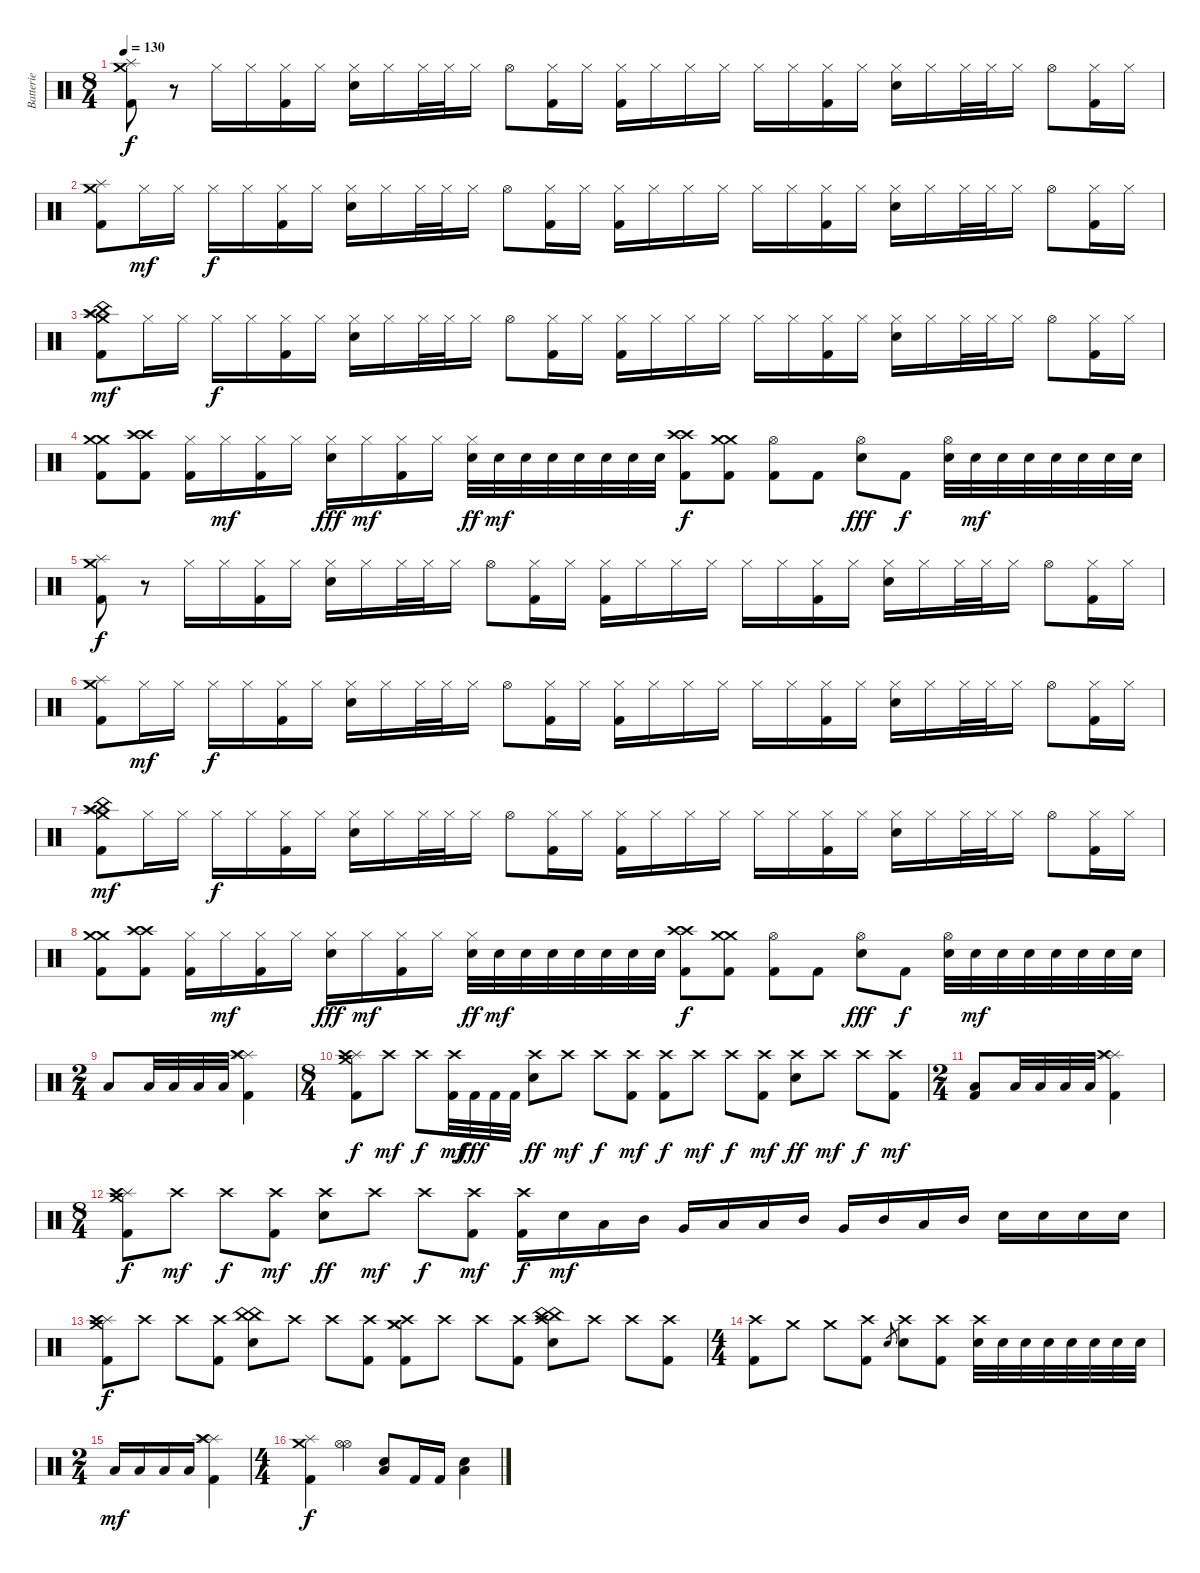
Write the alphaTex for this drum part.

\track ("Batterie" "Batterie") {instrument percussion}
\staff {score}
\articulation defaults
\ts (8 4)
\tempo 130
\clef neutral
\ks c
("Splash (hit)" "Crash medium (hit)" "Kick (hit) 2").8{dy f} r.8 "Hi-Hat (closed)".16 "Hi-Hat (closed)".16 ("Hi-Hat (closed)" "Kick (hit) 2").16 "Hi-Hat (closed)".16 ("Hi-Hat (closed)" "Electric Snare (hit)").16 "Hi-Hat (closed)".16 "Hi-Hat (closed)".32 "Hi-Hat (closed)".32 "Hi-Hat (closed)".16 "Hi-Hat (open)".8 ("Hi-Hat (closed)" "Kick (hit) 2").16 "Hi-Hat (closed)".16 ("Hi-Hat (closed)" "Kick (hit) 2").16 "Hi-Hat (closed)".16 "Hi-Hat (closed)".16 "Hi-Hat (closed)".16 "Hi-Hat (closed)".16 "Hi-Hat (closed)".16 ("Hi-Hat (closed)" "Kick (hit) 2").16 "Hi-Hat (closed)".16 ("Hi-Hat (closed)" "Electric Snare (hit)").16 "Hi-Hat (closed)".16 "Hi-Hat (closed)".32 "Hi-Hat (closed)".32 "Hi-Hat (closed)".16 "Hi-Hat (open)".8 ("Hi-Hat (closed)" "Kick (hit) 2").16 "Hi-Hat (closed)".16 |
("Splash (hit)" "Crash medium (hit)" "Kick (hit) 2").8 "Hi-Hat (closed)".16{dy mf} "Hi-Hat (closed)".16 "Hi-Hat (closed)".16{dy f} "Hi-Hat (closed)".16 ("Hi-Hat (closed)" "Kick (hit) 2").16 "Hi-Hat (closed)".16 ("Hi-Hat (closed)" "Electric Snare (hit)").16 "Hi-Hat (closed)".16 "Hi-Hat (closed)".32 "Hi-Hat (closed)".32 "Hi-Hat (closed)".16 "Hi-Hat (open)".8 ("Hi-Hat (closed)" "Kick (hit) 2").16 "Hi-Hat (closed)".16 ("Hi-Hat (closed)" "Kick (hit) 2").16 "Hi-Hat (closed)".16 "Hi-Hat (closed)".16 "Hi-Hat (closed)".16 "Hi-Hat (closed)".16 "Hi-Hat (closed)".16 ("Hi-Hat (closed)" "Kick (hit) 2").16 "Hi-Hat (closed)".16 ("Hi-Hat (closed)" "Electric Snare (hit)").16 "Hi-Hat (closed)".16 "Hi-Hat (closed)".32 "Hi-Hat (closed)".32 "Hi-Hat (closed)".16 "Hi-Hat (open)".8 ("Hi-Hat (closed)" "Kick (hit) 2").16 "Hi-Hat (closed)".16 |
("Splash (hit)" "Crash medium (hit)" "China (hit)" "Crash high (hit)" "Kick (hit) 2").8{dy mf} "Hi-Hat (closed)".16 "Hi-Hat (closed)".16 "Hi-Hat (closed)".16{dy f} "Hi-Hat (closed)".16 ("Hi-Hat (closed)" "Kick (hit) 2").16 "Hi-Hat (closed)".16 ("Hi-Hat (closed)" "Electric Snare (hit)").16 "Hi-Hat (closed)".16 "Hi-Hat (closed)".32 "Hi-Hat (closed)".32 "Hi-Hat (closed)".16 "Hi-Hat (open)".8 ("Hi-Hat (closed)" "Kick (hit) 2").16 "Hi-Hat (closed)".16 ("Hi-Hat (closed)" "Kick (hit) 2").16 "Hi-Hat (closed)".16 "Hi-Hat (closed)".16 "Hi-Hat (closed)".16 "Hi-Hat (closed)".16 "Hi-Hat (closed)".16 ("Hi-Hat (closed)" "Kick (hit) 2").16 "Hi-Hat (closed)".16 ("Hi-Hat (closed)" "Electric Snare (hit)").16 "Hi-Hat (closed)".16 "Hi-Hat (closed)".32 "Hi-Hat (closed)".32 "Hi-Hat (closed)".16 "Hi-Hat (open)".8 ("Hi-Hat (closed)" "Kick (hit) 2").16 "Hi-Hat (closed)".16 |
("Crash medium (hit)" "Crash medium (hit)" "Kick (hit) 2").8 ("Crash high (hit)" "Crash high (hit)" "Kick (hit) 2").8 ("Hi-Hat (closed)" "Kick (hit) 2").16 "Hi-Hat (closed)".16{dy mf} ("Hi-Hat (closed)" "Kick (hit) 2").16 "Hi-Hat (closed)".16 ("Hi-Hat (closed)" "Electric Snare (hit)").16{dy fff} "Hi-Hat (closed)".16{dy mf} ("Hi-Hat (closed)" "Kick (hit) 2").16 "Hi-Hat (closed)".16 ("Hi-Hat (closed)" "Electric Snare (hit)").32{dy ff} "Electric Snare (hit)".32{dy mf} "Electric Snare (hit)".32 "Electric Snare (hit)".32 "Electric Snare (hit)".32 "Electric Snare (hit)".32 "Electric Snare (hit)".32 "Electric Snare (hit)".32 ("Crash high (hit)" "Crash high (hit)" "Kick (hit) 2").8{dy f} ("Crash medium (hit)" "Crash medium (hit)" "Kick (hit) 2").8 ("Hi-Hat (open)" "Kick (hit) 2").8 "Kick (hit) 2".8 ("Hi-Hat (open)" "Electric Snare (hit)").8{dy fff} "Kick (hit) 2".8{dy f} ("Hi-Hat (open)" "Electric Snare (hit)").32 "Electric Snare (hit)".32{dy mf} "Electric Snare (hit)".32 "Electric Snare (hit)".32 "Electric Snare (hit)".32 "Electric Snare (hit)".32 "Electric Snare (hit)".32 "Electric Snare (hit)".32 |
("Splash (hit)" "Crash medium (hit)" "Kick (hit) 2").8{dy f} r.8 "Hi-Hat (closed)".16 "Hi-Hat (closed)".16 ("Hi-Hat (closed)" "Kick (hit) 2").16 "Hi-Hat (closed)".16 ("Hi-Hat (closed)" "Electric Snare (hit)").16 "Hi-Hat (closed)".16 "Hi-Hat (closed)".32 "Hi-Hat (closed)".32 "Hi-Hat (closed)".16 "Hi-Hat (open)".8 ("Hi-Hat (closed)" "Kick (hit) 2").16 "Hi-Hat (closed)".16 ("Hi-Hat (closed)" "Kick (hit) 2").16 "Hi-Hat (closed)".16 "Hi-Hat (closed)".16 "Hi-Hat (closed)".16 "Hi-Hat (closed)".16 "Hi-Hat (closed)".16 ("Hi-Hat (closed)" "Kick (hit) 2").16 "Hi-Hat (closed)".16 ("Hi-Hat (closed)" "Electric Snare (hit)").16 "Hi-Hat (closed)".16 "Hi-Hat (closed)".32 "Hi-Hat (closed)".32 "Hi-Hat (closed)".16 "Hi-Hat (open)".8 ("Hi-Hat (closed)" "Kick (hit) 2").16 "Hi-Hat (closed)".16 |
("Splash (hit)" "Crash medium (hit)" "Kick (hit) 2").8 "Hi-Hat (closed)".16{dy mf} "Hi-Hat (closed)".16 "Hi-Hat (closed)".16{dy f} "Hi-Hat (closed)".16 ("Hi-Hat (closed)" "Kick (hit) 2").16 "Hi-Hat (closed)".16 ("Hi-Hat (closed)" "Electric Snare (hit)").16 "Hi-Hat (closed)".16 "Hi-Hat (closed)".32 "Hi-Hat (closed)".32 "Hi-Hat (closed)".16 "Hi-Hat (open)".8 ("Hi-Hat (closed)" "Kick (hit) 2").16 "Hi-Hat (closed)".16 ("Hi-Hat (closed)" "Kick (hit) 2").16 "Hi-Hat (closed)".16 "Hi-Hat (closed)".16 "Hi-Hat (closed)".16 "Hi-Hat (closed)".16 "Hi-Hat (closed)".16 ("Hi-Hat (closed)" "Kick (hit) 2").16 "Hi-Hat (closed)".16 ("Hi-Hat (closed)" "Electric Snare (hit)").16 "Hi-Hat (closed)".16 "Hi-Hat (closed)".32 "Hi-Hat (closed)".32 "Hi-Hat (closed)".16 "Hi-Hat (open)".8 ("Hi-Hat (closed)" "Kick (hit) 2").16 "Hi-Hat (closed)".16 |
("Splash (hit)" "Crash medium (hit)" "China (hit)" "Crash high (hit)" "Kick (hit) 2").8{dy mf} "Hi-Hat (closed)".16 "Hi-Hat (closed)".16 "Hi-Hat (closed)".16{dy f} "Hi-Hat (closed)".16 ("Hi-Hat (closed)" "Kick (hit) 2").16 "Hi-Hat (closed)".16 ("Hi-Hat (closed)" "Electric Snare (hit)").16 "Hi-Hat (closed)".16 "Hi-Hat (closed)".32 "Hi-Hat (closed)".32 "Hi-Hat (closed)".16 "Hi-Hat (open)".8 ("Hi-Hat (closed)" "Kick (hit) 2").16 "Hi-Hat (closed)".16 ("Hi-Hat (closed)" "Kick (hit) 2").16 "Hi-Hat (closed)".16 "Hi-Hat (closed)".16 "Hi-Hat (closed)".16 "Hi-Hat (closed)".16 "Hi-Hat (closed)".16 ("Hi-Hat (closed)" "Kick (hit) 2").16 "Hi-Hat (closed)".16 ("Hi-Hat (closed)" "Electric Snare (hit)").16 "Hi-Hat (closed)".16 "Hi-Hat (closed)".32 "Hi-Hat (closed)".32 "Hi-Hat (closed)".16 "Hi-Hat (open)".8 ("Hi-Hat (closed)" "Kick (hit) 2").16 "Hi-Hat (closed)".16 |
("Crash medium (hit)" "Crash medium (hit)" "Kick (hit) 2").8 ("Crash high (hit)" "Crash high (hit)" "Kick (hit) 2").8 ("Hi-Hat (closed)" "Kick (hit) 2").16 "Hi-Hat (closed)".16{dy mf} ("Hi-Hat (closed)" "Kick (hit) 2").16 "Hi-Hat (closed)".16 ("Hi-Hat (closed)" "Electric Snare (hit)").16{dy fff} "Hi-Hat (closed)".16{dy mf} ("Hi-Hat (closed)" "Kick (hit) 2").16 "Hi-Hat (closed)".16 ("Hi-Hat (closed)" "Electric Snare (hit)").32{dy ff} "Electric Snare (hit)".32{dy mf} "Electric Snare (hit)".32 "Electric Snare (hit)".32 "Electric Snare (hit)".32 "Electric Snare (hit)".32 "Electric Snare (hit)".32 "Electric Snare (hit)".32 ("Crash high (hit)" "Crash high (hit)" "Kick (hit) 2").8{dy f} ("Crash medium (hit)" "Crash medium (hit)" "Kick (hit) 2").8 ("Hi-Hat (open)" "Kick (hit) 2").8 "Kick (hit) 2".8 ("Hi-Hat (open)" "Electric Snare (hit)").8{dy fff} "Kick (hit) 2".8{dy f} ("Hi-Hat (open)" "Electric Snare (hit)").32 "Electric Snare (hit)".32{dy mf} "Electric Snare (hit)".32 "Electric Snare (hit)".32 "Electric Snare (hit)".32 "Electric Snare (hit)".32 "Electric Snare (hit)".32 "Electric Snare (hit)".32 |
\ts (2 4)
"Low Floor Tom (hit)".8 "Low Floor Tom (hit)".32 "Low Floor Tom (hit)".32 "Low Floor Tom (hit)".32 "Low Floor Tom (hit)".32 ("Splash (hit)" "Crash high (hit)" "Splash (hit)" "Kick (hit) 2").4 |
\ts (8 4)
("Crash medium (hit)" "Splash (hit)" "Crash high (hit)" "Kick (hit) 2").8{dy f} "Crash high (hit)".8{dy mf} "Crash high (hit)".8{dy f} ("Crash high (hit)" "Kick (hit) 2").32{dy mf} "Kick (hit) 2".32{dy fff} "Kick (hit) 2".32 "Kick (hit) 2".32 ("Crash high (hit)" "Electric Snare (hit)").8{dy ff} "Crash high (hit)".8{dy mf} "Crash high (hit)".8{dy f} ("Crash high (hit)" "Kick (hit) 2").8{dy mf} ("Crash high (hit)" "Kick (hit) 2").8{dy f} "Crash high (hit)".8{dy mf} "Crash high (hit)".8{dy f} ("Crash high (hit)" "Kick (hit) 2").8{dy mf} ("Crash high (hit)" "Electric Snare (hit)").8{dy ff} "Crash high (hit)".8{dy mf} "Crash high (hit)".8{dy f} ("Crash high (hit)" "Kick (hit) 2").8{dy mf} |
\ts (2 4)
("Low Floor Tom (hit)" "Kick (hit) 2").8 "Low Floor Tom (hit)".32 "Low Floor Tom (hit)".32 "Low Floor Tom (hit)".32 "Low Floor Tom (hit)".32 ("Splash (hit)" "Crash high (hit)" "Splash (hit)" "Kick (hit) 2").4 |
\ts (8 4)
("Crash medium (hit)" "Splash (hit)" "Crash high (hit)" "Kick (hit) 2").8{dy f} "Crash high (hit)".8{dy mf} "Crash high (hit)".8{dy f} ("Crash high (hit)" "Kick (hit) 2").8{dy mf} ("Crash high (hit)" "Electric Snare (hit)").8{dy ff} "Crash high (hit)".8{dy mf} "Crash high (hit)".8{dy f} ("Crash high (hit)" "Kick (hit) 2").8{dy mf} ("Crash high (hit)" "Kick (hit) 2").16{dy f} "Electric Snare (hit)".16{dy mf} "Low Tom (hit)".16 "Mid Tom (hit)".16 "Very Low Tom (hit)".16 "Low Tom (hit)".16 "Low Tom (hit)".16 "Mid Tom (hit)".16 "Very Low Tom (hit)".16 "Mid Tom (hit)".16 "Low Tom (hit)".16 "Mid Tom (hit)".16 "Electric Snare (hit)".16 "Electric Snare (hit)".16 "Electric Snare (hit)".16 "Electric Snare (hit)".16 |
("Crash medium (hit)" "Splash (hit)" "Crash high (hit)" "Kick (hit) 2").8{dy f} "Crash high (hit)".8 "Crash high (hit)".8 ("Crash high (hit)" "Kick (hit) 2").8 ("China (hit)" "China (hit)" "Electric Snare (hit)").8 "Crash high (hit)".8 "Crash high (hit)".8 ("Crash high (hit)" "Kick (hit) 2").8 ("Crash medium (hit)" "Crash medium (hit)" "Crash high (hit)" "Kick (hit) 2").8 "Crash high (hit)".8 "Crash high (hit)".8 ("Crash high (hit)" "Kick (hit) 2").8 ("China (hit)" "China (hit)" "Crash high (hit)" "Electric Snare (hit)").8 "Crash high (hit)".8 "Crash high (hit)".8 ("Crash high (hit)" "Kick (hit) 2").8 |
\ts (4 4)
("Crash high (hit)" "Kick (hit) 2").8 "Crash medium (hit)".8 "Crash medium (hit)".8 ("Crash high (hit)" "Kick (hit) 2").8 "Electric Snare (hit)".8{gr} ("Crash high (hit)" "Electric Snare (hit)").8 ("Crash high (hit)" "Kick (hit) 2").8 ("Crash high (hit)" "Electric Snare (hit)").32 "Electric Snare (hit)".32 "Electric Snare (hit)".32 "Electric Snare (hit)".32 "Electric Snare (hit)".32 "Electric Snare (hit)".32 "Electric Snare (hit)".32 "Electric Snare (hit)".32 |
\ts (2 4)
"Low Floor Tom (hit)".16{dy mf} "Low Floor Tom (hit)".16 "Low Floor Tom (hit)".16 "Low Floor Tom (hit)".16 ("Splash (hit)" "Crash high (hit)" "Splash (hit)" "Kick (hit) 2").4 |
\ts (4 4)
("Splash (hit)" "Crash medium (hit)" "Kick (hit) 2").4{dy f} ("Hi-Hat (open)" "Hi-Hat (open)").4 ("Electric Snare (hit)" "Low Floor Tom (hit)").8 "Kick (hit) 2".16 "Kick (hit) 2".16 ("Electric Snare (hit)" "Low Floor Tom (hit)").4
